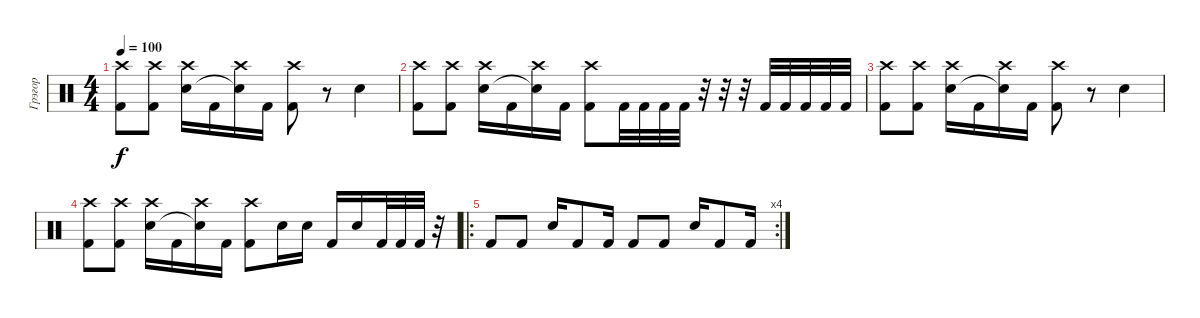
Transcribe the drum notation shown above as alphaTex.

\track ("Грэгор" "Грэгор") {instrument percussion}
\staff {score}
\articulation defaults
\ts (4 4)
\tempo 100
\clef neutral
\ks c
("Crash high (hit)" "Kick (hit) 2").8{dy f} ("Crash high (hit)" "Kick (hit) 2").8 ("Crash high (hit)" "Snare (hit) 2").16 "Kick (hit) 2".16 ("Crash high (hit)" "Snare (hit)"{t}).16 "Kick (hit) 2".16 ("Crash high (hit)" "Kick (hit) 2").8 r.8 "Snare (hit) 2".4 |
("Crash high (hit)" "Kick (hit) 2").8 ("Crash high (hit)" "Kick (hit) 2").8 ("Crash high (hit)" "Snare (hit) 2").16 "Kick (hit) 2".16 ("Crash high (hit)" "Snare (hit)"{t}).16 "Kick (hit) 2".16 ("Crash high (hit)" "Kick (hit) 2").8 "Kick (hit) 2".32 "Kick (hit) 2".32 "Kick (hit) 2".32 "Kick (hit) 2".32 r.32 r.32 r.32 "Kick (hit) 2".32 "Kick (hit) 2".32 "Kick (hit) 2".32 "Kick (hit) 2".32 "Kick (hit) 2".32 |
("Crash high (hit)" "Kick (hit) 2").8 ("Crash high (hit)" "Kick (hit) 2").8 ("Crash high (hit)" "Snare (hit) 2").16 "Kick (hit) 2".16 ("Crash high (hit)" "Snare (hit)"{t}).16 "Kick (hit) 2".16 ("Crash high (hit)" "Kick (hit) 2").8 r.8 "Snare (hit) 2".4 |
("Crash high (hit)" "Kick (hit) 2").8 ("Crash high (hit)" "Kick (hit) 2").8 ("Crash high (hit)" "Snare (hit) 2").16 "Kick (hit) 2".16 ("Crash high (hit)" "Snare (hit)"{t}).16 "Kick (hit) 2".16 ("Crash high (hit)" "Kick (hit) 2").8 "Snare (hit) 2".16 "Snare (hit) 2".16 "Kick (hit) 2".16 "Snare (hit) 2".16 "Kick (hit) 2".32 "Kick (hit) 2".32 "Kick (hit) 2".32 r.32 |
\ro
\rc 4 "Kick (hit) 2".8 "Kick (hit) 2".8 "Snare (hit) 2".16 "Kick (hit) 2".8 "Kick (hit) 2".16 "Kick (hit) 2".8 "Kick (hit) 2".8 "Snare (hit) 2".16 "Kick (hit) 2".8 "Kick (hit) 2".16
